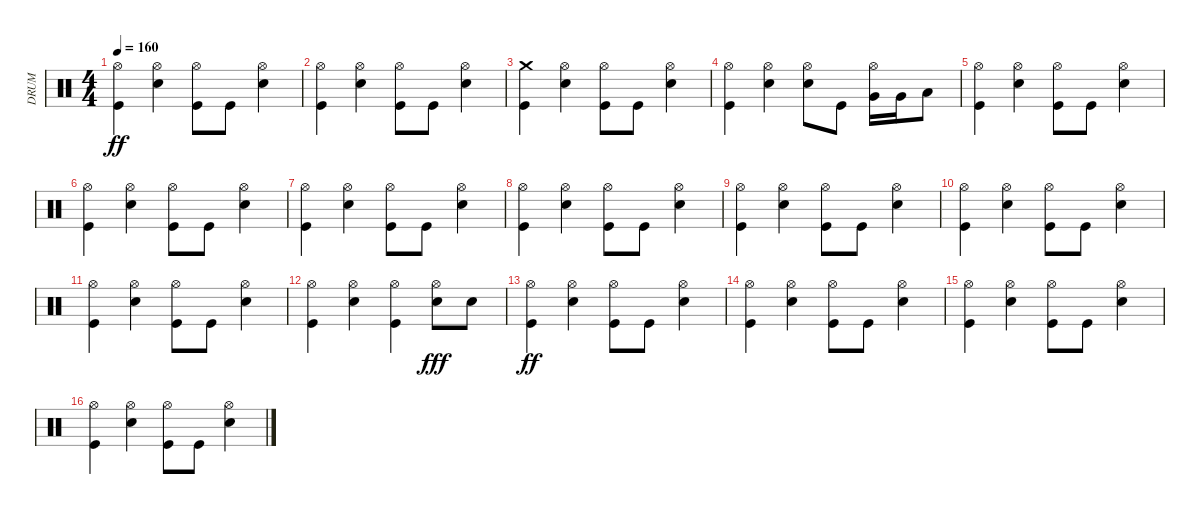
\track ("DRUM" "DRUM") {instrument percussion}
\staff {score}
\articulation defaults
\ts (4 4)
\tempo 160
\clef neutral
\ks c
("Hi-Hat (open)" "Kick (hit)").4{dy ff} ("Hi-Hat (open)" "Snare (hit) 2").4 ("Hi-Hat (open)" "Kick (hit)").8 "Kick (hit)".8 ("Hi-Hat (open)" "Snare (hit) 2").4 |
("Hi-Hat (open)" "Kick (hit)").4 ("Hi-Hat (open)" "Snare (hit) 2").4 ("Hi-Hat (open)" "Kick (hit)").8 "Kick (hit)".8 ("Hi-Hat (open)" "Snare (hit) 2").4 |
("Crash medium (hit)" "Kick (hit)").4 ("Hi-Hat (open)" "Snare (hit) 2").4 ("Hi-Hat (open)" "Kick (hit)").8 "Kick (hit)".8 ("Hi-Hat (open)" "Snare (hit) 2").4 |
("Hi-Hat (open)" "Kick (hit)").4 ("Hi-Hat (open)" "Snare (hit) 2").4 ("Hi-Hat (open)" "Snare (hit) 2").8 "Kick (hit)".8 ("Hi-Hat (open)" "Very Low Tom (hit)").16 "Very Low Tom (hit)".16 "Low Tom (hit)".8 |
("Hi-Hat (open)" "Kick (hit)").4 ("Hi-Hat (open)" "Snare (hit) 2").4 ("Hi-Hat (open)" "Kick (hit)").8 "Kick (hit)".8 ("Hi-Hat (open)" "Snare (hit) 2").4 |
("Hi-Hat (open)" "Kick (hit)").4 ("Hi-Hat (open)" "Snare (hit) 2").4 ("Hi-Hat (open)" "Kick (hit)").8 "Kick (hit)".8 ("Hi-Hat (open)" "Snare (hit) 2").4 |
("Hi-Hat (open)" "Kick (hit)").4 ("Hi-Hat (open)" "Snare (hit) 2").4 ("Hi-Hat (open)" "Kick (hit)").8 "Kick (hit)".8 ("Hi-Hat (open)" "Snare (hit) 2").4 |
("Hi-Hat (open)" "Kick (hit)").4 ("Hi-Hat (open)" "Snare (hit) 2").4 ("Hi-Hat (open)" "Kick (hit)").8 "Kick (hit)".8 ("Hi-Hat (open)" "Snare (hit) 2").4 |
("Hi-Hat (open)" "Kick (hit)").4 ("Hi-Hat (open)" "Snare (hit) 2").4 ("Hi-Hat (open)" "Kick (hit)").8 "Kick (hit)".8 ("Hi-Hat (open)" "Snare (hit) 2").4 |
("Hi-Hat (open)" "Kick (hit)").4 ("Hi-Hat (open)" "Snare (hit) 2").4 ("Hi-Hat (open)" "Kick (hit)").8 "Kick (hit)".8 ("Hi-Hat (open)" "Snare (hit) 2").4 |
("Hi-Hat (open)" "Kick (hit)").4 ("Hi-Hat (open)" "Snare (hit) 2").4 ("Hi-Hat (open)" "Kick (hit)").8 "Kick (hit)".8 ("Hi-Hat (open)" "Snare (hit) 2").4 |
("Hi-Hat (open)" "Kick (hit)").4 ("Hi-Hat (open)" "Snare (hit) 2").4 ("Hi-Hat (open)" "Kick (hit)").4 ("Hi-Hat (open)" "Snare (hit) 2").8{dy fff} "Snare (hit) 2".8 |
("Hi-Hat (open)" "Kick (hit)").4{dy ff} ("Hi-Hat (open)" "Snare (hit) 2").4 ("Hi-Hat (open)" "Kick (hit)").8 "Kick (hit)".8 ("Hi-Hat (open)" "Snare (hit) 2").4 |
("Hi-Hat (open)" "Kick (hit)").4 ("Hi-Hat (open)" "Snare (hit) 2").4 ("Hi-Hat (open)" "Kick (hit)").8 "Kick (hit)".8 ("Hi-Hat (open)" "Snare (hit) 2").4 |
("Hi-Hat (open)" "Kick (hit)").4 ("Hi-Hat (open)" "Snare (hit) 2").4 ("Hi-Hat (open)" "Kick (hit)").8 "Kick (hit)".8 ("Hi-Hat (open)" "Snare (hit) 2").4 |
("Hi-Hat (open)" "Kick (hit)").4 ("Hi-Hat (open)" "Snare (hit) 2").4 ("Hi-Hat (open)" "Kick (hit)").8 "Kick (hit)".8 ("Hi-Hat (open)" "Snare (hit) 2").4
